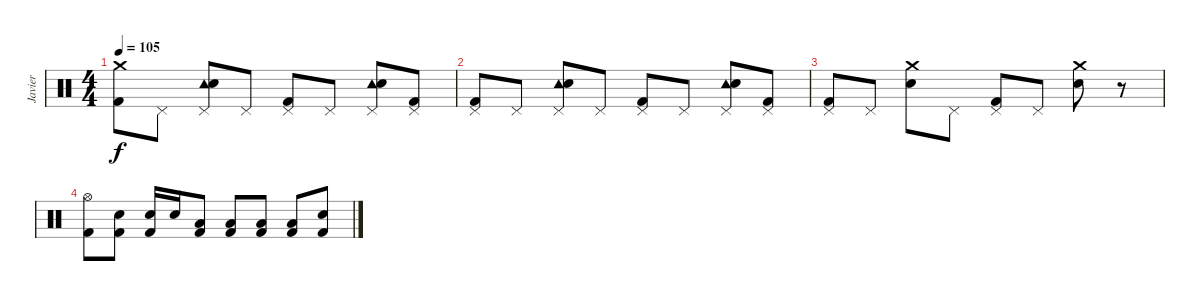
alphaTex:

\track ("Javier" "Javier") {instrument percussion}
\staff {score}
\articulation defaults
\ts (4 4)
\tempo 105
\clef neutral
\ks c
("Crash medium (hit)" "Kick (hit) 2").8{dy f} "Pedal Hi-Hat (hit)".8 ("Pedal Hi-Hat (hit)" "Tambourine (hit)" "Snare (hit) 2").8 "Pedal Hi-Hat (hit)".8 ("Pedal Hi-Hat (hit)" "Kick (hit) 2").8 "Pedal Hi-Hat (hit)".8 ("Pedal Hi-Hat (hit)" "Tambourine (hit)" "Snare (hit) 2").8 ("Pedal Hi-Hat (hit)" "Kick (hit) 2").8 |
("Pedal Hi-Hat (hit)" "Kick (hit) 2").8 "Pedal Hi-Hat (hit)".8 ("Pedal Hi-Hat (hit)" "Tambourine (hit)" "Snare (hit) 2").8 "Pedal Hi-Hat (hit)".8 ("Pedal Hi-Hat (hit)" "Kick (hit) 2").8 "Pedal Hi-Hat (hit)".8 ("Pedal Hi-Hat (hit)" "Tambourine (hit)" "Snare (hit) 2").8 ("Pedal Hi-Hat (hit)" "Kick (hit) 2").8 |
("Pedal Hi-Hat (hit)" "Kick (hit) 2").8 "Pedal Hi-Hat (hit)".8 ("Crash medium (hit)" "Snare (hit) 2").8 "Pedal Hi-Hat (hit)".8 ("Pedal Hi-Hat (hit)" "Kick (hit) 2").8 "Pedal Hi-Hat (hit)".8 ("Crash medium (hit)" "Snare (hit) 2").8 r.8 |
("Hi-Hat (open)" "Kick (hit) 2").8 ("Snare (hit) 2" "Kick (hit) 2").8 ("Snare (hit) 2" "Kick (hit) 2").16 "Snare (hit) 2".16 ("Low Tom (hit)" "Kick (hit) 2").8 ("Low Tom (hit)" "Kick (hit) 2").8 ("Low Tom (hit)" "Kick (hit) 2").8 ("Low Tom (hit)" "Kick (hit) 2").8 ("Snare (hit) 2" "Kick (hit) 2").8
